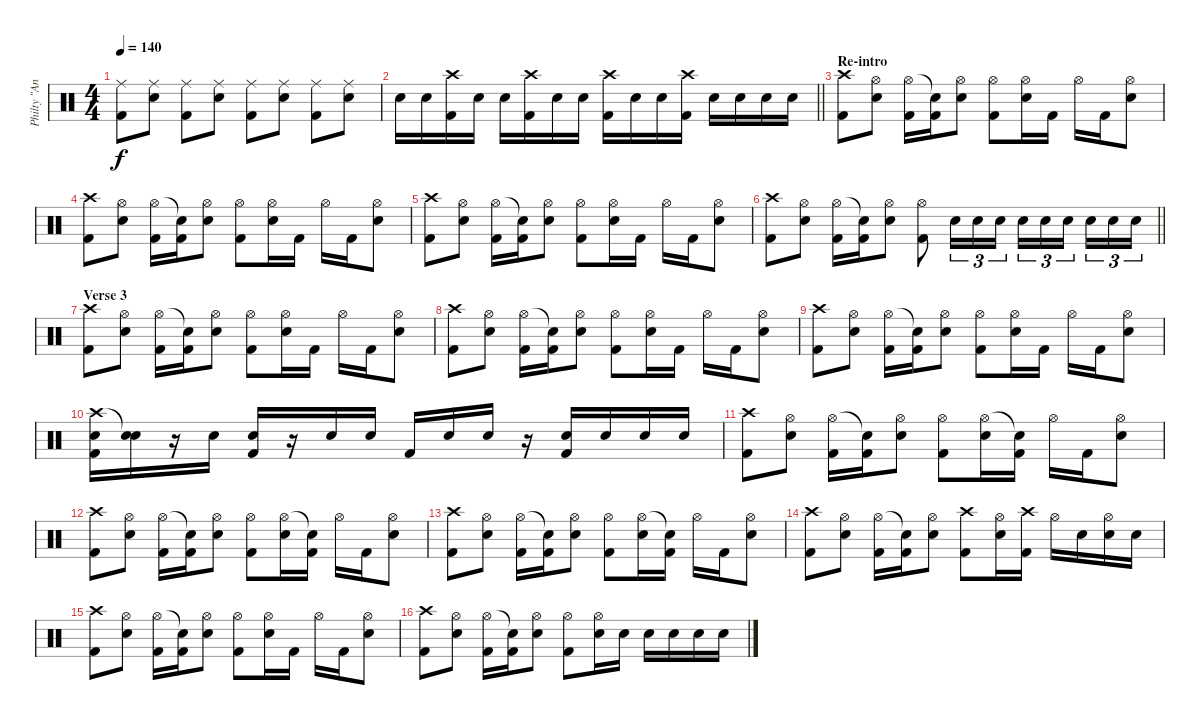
\track ("Philty \"Animal\" Taylor (Drums)" "Philty \"An") {instrument percussion}
\staff {score}
\articulation defaults
\ts (4 4)
\tempo 140
\clef neutral
\ks c
("Ride (middle)" "Kick (hit) 2").8{dy f} ("Ride (middle)" "Electric Snare (hit)").8 ("Ride (middle)" "Kick (hit) 2").8 ("Ride (middle)" "Electric Snare (hit)").8 ("Ride (middle)" "Kick (hit) 2").8 ("Ride (middle)" "Electric Snare (hit)").8 ("Ride (middle)" "Kick (hit) 2").8 ("Ride (middle)" "Electric Snare (hit)").8 |
\barLineRight lightlight "Electric Snare (hit)".16 "Electric Snare (hit)".16
("Crash high (hit)" "Kick (hit) 2").16 "Electric Snare (hit)".16 "Electric Snare (hit)".16 ("Crash high (hit)" "Kick (hit) 2").16 "Electric Snare (hit)".16 "Electric Snare (hit)".16 ("Crash high (hit)" "Kick (hit) 2").16 "Electric Snare (hit)".16 "Electric Snare (hit)".16 ("Crash high (hit)" "Kick (hit) 2").16 "Electric Snare (hit)".16 "Electric Snare (hit)".16 "Electric Snare (hit)".16 "Electric Snare (hit)".16 |
\section ("" "Re-intro")
("Crash high (hit)" "Kick (hit) 2").8 ("Hi-Hat (open)" "Electric Snare (hit)").8 ("Hi-Hat (open)" "Kick (hit) 2").16 ("Snare (hit)"{t} "Kick (hit) 2").16 ("Hi-Hat (open)" "Electric Snare (hit)").8 ("Hi-Hat (open)" "Kick (hit) 2").8 ("Hi-Hat (open)" "Electric Snare (hit)").16 "Kick (hit) 2".16 "Hi-Hat (open)".16 "Kick (hit) 2".16 ("Hi-Hat (open)" "Electric Snare (hit)").8 |
("Crash high (hit)" "Kick (hit) 2").8 ("Hi-Hat (open)" "Electric Snare (hit)").8 ("Hi-Hat (open)" "Kick (hit) 2").16 ("Snare (hit)"{t} "Kick (hit) 2").16 ("Hi-Hat (open)" "Electric Snare (hit)").8 ("Hi-Hat (open)" "Kick (hit) 2").8 ("Hi-Hat (open)" "Electric Snare (hit)").16 "Kick (hit) 2".16 "Hi-Hat (open)".16 "Kick (hit) 2".16 ("Hi-Hat (open)" "Electric Snare (hit)").8 |
("Crash high (hit)" "Kick (hit) 2").8 ("Hi-Hat (open)" "Electric Snare (hit)").8 ("Hi-Hat (open)" "Kick (hit) 2").16 ("Snare (hit)"{t} "Kick (hit) 2").16 ("Hi-Hat (open)" "Electric Snare (hit)").8 ("Hi-Hat (open)" "Kick (hit) 2").8 ("Hi-Hat (open)" "Electric Snare (hit)").16 "Kick (hit) 2".16 "Hi-Hat (open)".16 "Kick (hit) 2".16 ("Hi-Hat (open)" "Electric Snare (hit)").8 |
\barLineRight lightlight
("Crash high (hit)" "Kick (hit) 2").8 ("Hi-Hat (open)" "Electric Snare (hit)").8 ("Hi-Hat (open)" "Kick (hit) 2").16 ("Snare (hit)"{t} "Kick (hit) 2").16 ("Hi-Hat (open)" "Electric Snare (hit)").8 ("Hi-Hat (open)" "Kick (hit) 2").8 "Electric Snare (hit)".16{tu (3 2)} "Electric Snare (hit)".16{tu (3 2)} "Electric Snare (hit)".16{tu (3 2)} "Electric Snare (hit)".16{tu (3 2)} "Electric Snare (hit)".16{tu (3 2)} "Electric Snare (hit)".16{tu (3 2) beam splitsecondary} "Electric Snare (hit)".16{tu (3 2)} "Electric Snare (hit)".16{tu (3 2)} "Electric Snare (hit)".16{tu (3 2)} |
\section ("" "Verse 3")
("Crash high (hit)" "Kick (hit) 2").8 ("Hi-Hat (open)" "Electric Snare (hit)").8 ("Hi-Hat (open)" "Kick (hit) 2").16 ("Snare (hit)"{t} "Kick (hit) 2").16 ("Hi-Hat (open)" "Electric Snare (hit)").8 ("Hi-Hat (open)" "Kick (hit) 2").8 ("Hi-Hat (open)" "Electric Snare (hit)").16 "Kick (hit) 2".16 "Hi-Hat (open)".16 "Kick (hit) 2".16 ("Hi-Hat (open)" "Electric Snare (hit)").8 |
("Crash high (hit)" "Kick (hit) 2").8 ("Hi-Hat (open)" "Electric Snare (hit)").8 ("Hi-Hat (open)" "Kick (hit) 2").16 ("Snare (hit)"{t} "Kick (hit) 2").16 ("Hi-Hat (open)" "Electric Snare (hit)").8 ("Hi-Hat (open)" "Kick (hit) 2").8 ("Hi-Hat (open)" "Electric Snare (hit)").16 "Kick (hit) 2".16 "Hi-Hat (open)".16 "Kick (hit) 2".16 ("Hi-Hat (open)" "Electric Snare (hit)").8 |
("Crash high (hit)" "Kick (hit) 2").8 ("Hi-Hat (open)" "Electric Snare (hit)").8 ("Hi-Hat (open)" "Kick (hit) 2").16 ("Snare (hit)"{t} "Kick (hit) 2").16 ("Hi-Hat (open)" "Electric Snare (hit)").8 ("Hi-Hat (open)" "Kick (hit) 2").8 ("Hi-Hat (open)" "Electric Snare (hit)").16 "Kick (hit) 2".16 "Hi-Hat (open)".16 "Kick (hit) 2".16 ("Hi-Hat (open)" "Electric Snare (hit)").8 |
("Crash high (hit)" "Electric Snare (hit)" "Kick (hit) 2").16 ("Snare (hit)"{t} "Electric Snare (hit)").16 r.16 "Electric Snare (hit)".16 ("Electric Snare (hit)" "Kick (hit) 2").16 r.16 "Electric Snare (hit)".16 "Electric Snare (hit)".16 "Kick (hit) 2".16 "Electric Snare (hit)".16 "Electric Snare (hit)".16 r.16 ("Electric Snare (hit)" "Kick (hit) 2").16 "Electric Snare (hit)".16 "Electric Snare (hit)".16 "Electric Snare (hit)".16 |
("Crash high (hit)" "Kick (hit) 2").8 ("Hi-Hat (open)" "Electric Snare (hit)").8 ("Hi-Hat (open)" "Kick (hit) 2").16 ("Snare (hit)"{t} "Kick (hit) 2").16 ("Hi-Hat (open)" "Electric Snare (hit)").8 ("Hi-Hat (open)" "Kick (hit) 2").8 ("Hi-Hat (open)" "Electric Snare (hit)").16 ("Snare (hit)"{t} "Kick (hit) 2").16 "Hi-Hat (open)".16 "Kick (hit) 2".16 ("Hi-Hat (open)" "Electric Snare (hit)").8 |
("Crash high (hit)" "Kick (hit) 2").8 ("Hi-Hat (open)" "Electric Snare (hit)").8 ("Hi-Hat (open)" "Kick (hit) 2").16 ("Snare (hit)"{t} "Kick (hit) 2").16 ("Hi-Hat (open)" "Electric Snare (hit)").8 ("Hi-Hat (open)" "Kick (hit) 2").8 ("Hi-Hat (open)" "Electric Snare (hit)").16 ("Snare (hit)"{t} "Kick (hit) 2").16 "Hi-Hat (open)".16 "Kick (hit) 2".16 ("Hi-Hat (open)" "Electric Snare (hit)").8 |
("Crash high (hit)" "Kick (hit) 2").8 ("Hi-Hat (open)" "Electric Snare (hit)").8 ("Hi-Hat (open)" "Kick (hit) 2").16 ("Snare (hit)"{t} "Kick (hit) 2").16 ("Hi-Hat (open)" "Electric Snare (hit)").8 ("Hi-Hat (open)" "Kick (hit) 2").8 ("Hi-Hat (open)" "Electric Snare (hit)").16 ("Snare (hit)"{t} "Kick (hit) 2").16 "Hi-Hat (open)".16 "Kick (hit) 2".16 ("Hi-Hat (open)" "Electric Snare (hit)").8 |
("Crash high (hit)" "Kick (hit) 2").8 ("Hi-Hat (open)" "Electric Snare (hit)").8 ("Hi-Hat (open)" "Kick (hit) 2").16 ("Snare (hit)"{t} "Kick (hit) 2").16 ("Hi-Hat (open)" "Electric Snare (hit)").8 ("Crash high (hit)" "Kick (hit) 2").8 ("Hi-Hat (open)" "Electric Snare (hit)").16 ("Crash high (hit)" "Kick (hit) 2").16 "Hi-Hat (open)".16 "Electric Snare (hit)".16 ("Hi-Hat (open)" "Electric Snare (hit)").16 "Electric Snare (hit)".16 |
("Crash high (hit)" "Kick (hit) 2").8 ("Hi-Hat (open)" "Electric Snare (hit)").8 ("Hi-Hat (open)" "Kick (hit) 2").16 ("Snare (hit)"{t} "Kick (hit) 2").16 ("Hi-Hat (open)" "Electric Snare (hit)").8 ("Hi-Hat (open)" "Kick (hit) 2").8 ("Hi-Hat (open)" "Electric Snare (hit)").16 "Kick (hit) 2".16 "Hi-Hat (open)".16 "Kick (hit) 2".16 ("Hi-Hat (open)" "Electric Snare (hit)").8 |
("Crash high (hit)" "Kick (hit) 2").8 ("Hi-Hat (open)" "Electric Snare (hit)").8 ("Hi-Hat (open)" "Kick (hit) 2").16 ("Snare (hit)"{t} "Kick (hit) 2").16 ("Hi-Hat (open)" "Electric Snare (hit)").8 ("Hi-Hat (open)" "Kick (hit) 2").8 ("Hi-Hat (open)" "Electric Snare (hit)").16 "Electric Snare (hit)".16 "Electric Snare (hit)".16 "Electric Snare (hit)".16 "Electric Snare (hit)".16 "Electric Snare (hit)".16
